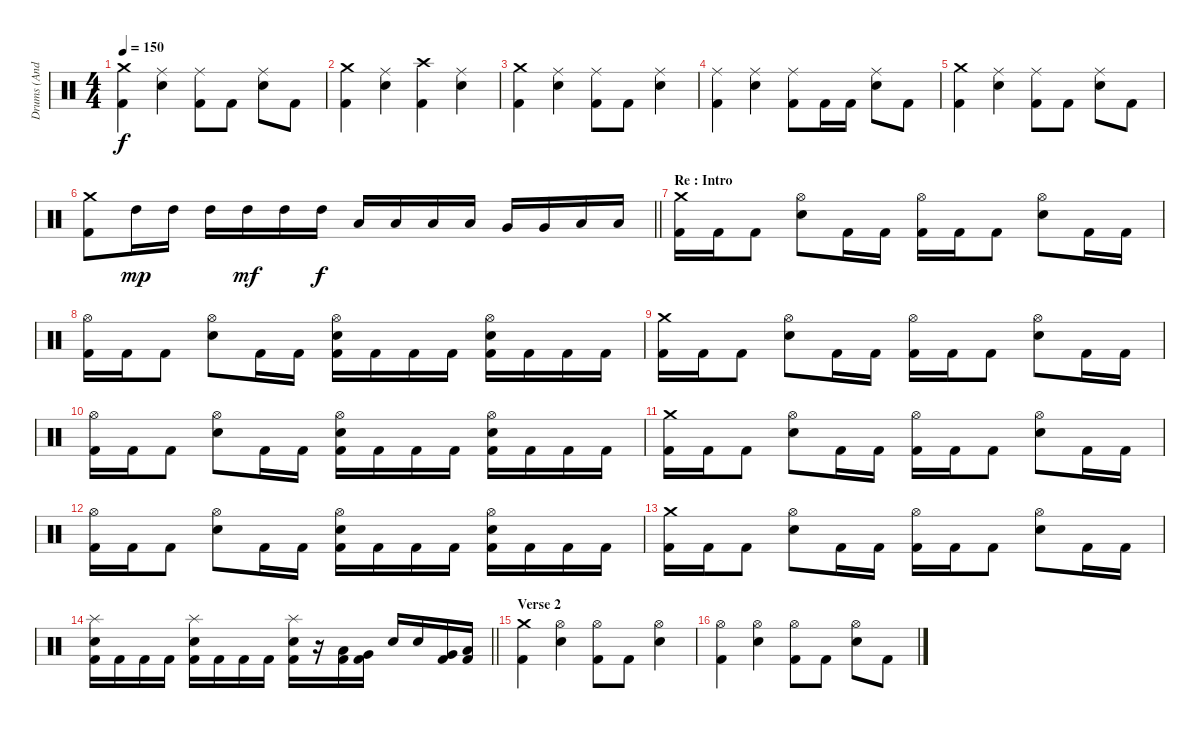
\track ("Drums (Andy C)" "Drums (And") {instrument percussion}
\staff
\articulation defaults
\ts (4 4)
\tempo 150
\clef neutral
\ks c
("Crash medium (hit)" "Kick (hit) 2").4{dy f} ("Ride (middle)" "Electric Snare (hit)").4 ("Ride (middle)" "Kick (hit) 2").8 "Kick (hit) 2".8 ("Ride (middle)" "Electric Snare (hit)").8 "Kick (hit) 2".8 |
("Crash medium (hit)" "Kick (hit) 2").4 ("Ride (middle)" "Electric Snare (hit)").4 ("Crash high (hit)" "Kick (hit) 2").4 ("Ride (middle)" "Electric Snare (hit)").4 |
("Crash medium (hit)" "Kick (hit) 2").4 ("Ride (middle)" "Electric Snare (hit)").4 ("Ride (middle)" "Kick (hit) 2").8 "Kick (hit) 2".8 ("Ride (middle)" "Electric Snare (hit)").4 |
("Ride (middle)" "Kick (hit) 2").4 ("Ride (middle)" "Electric Snare (hit)").4 ("Ride (middle)" "Kick (hit) 2").8 "Kick (hit) 2".16 "Kick (hit) 2".16 ("Ride (middle)" "Electric Snare (hit)").8 "Kick (hit) 2".8 |
("Crash medium (hit)" "Kick (hit) 2").4 ("Ride (middle)" "Electric Snare (hit)").4 ("Ride (middle)" "Kick (hit) 2").8 "Kick (hit) 2".8 ("Ride (middle)" "Electric Snare (hit)").8 "Kick (hit) 2".8 |
\barLineRight lightlight
("Crash medium (hit)" "Kick (hit) 2").8 "High Tom (hit)".16{dy mp} "High Tom (hit)".16 "High Tom (hit)".16 "High Tom (hit)".16{dy mf} "High Tom (hit)".16 "High Tom (hit)".16{dy f} "Low Tom (hit)".16 "Low Tom (hit)".16 "Low Tom (hit)".16 "Low Tom (hit)".16 "Very Low Tom (hit)".16 "Very Low Tom (hit)".16 "Low Floor Tom (hit)".16 "Low Floor Tom (hit)".16 |
\section ("" "Re : Intro")
("Crash medium (hit)" "Kick (hit) 2").16 "Kick (hit) 2".16 "Kick (hit) 2".8 ("Hi-Hat (open)" "Electric Snare (hit)").8 "Kick (hit) 2".16 "Kick (hit) 2".16 ("Hi-Hat (open)" "Kick (hit) 2").16 "Kick (hit) 2".16 "Kick (hit) 2".8 ("Hi-Hat (open)" "Electric Snare (hit)").8 "Kick (hit) 2".16 "Kick (hit) 2".16 |
("Hi-Hat (open)" "Kick (hit) 2").16 "Kick (hit) 2".16 "Kick (hit) 2".8 ("Hi-Hat (open)" "Electric Snare (hit)").8 "Kick (hit) 2".16 "Kick (hit) 2".16 ("Hi-Hat (open)" "Kick (hit) 2" "Electric Snare (hit)").16 "Kick (hit) 2".16 "Kick (hit) 2".16 "Kick (hit) 2".16 ("Hi-Hat (open)" "Kick (hit) 2" "Electric Snare (hit)").16 "Kick (hit) 2".16 "Kick (hit) 2".16 "Kick (hit) 2".16 |
("Crash medium (hit)" "Kick (hit) 2").16 "Kick (hit) 2".16 "Kick (hit) 2".8 ("Hi-Hat (open)" "Electric Snare (hit)").8 "Kick (hit) 2".16 "Kick (hit) 2".16 ("Hi-Hat (open)" "Kick (hit) 2").16 "Kick (hit) 2".16 "Kick (hit) 2".8 ("Hi-Hat (open)" "Electric Snare (hit)").8 "Kick (hit) 2".16 "Kick (hit) 2".16 |
("Hi-Hat (open)" "Kick (hit) 2").16 "Kick (hit) 2".16 "Kick (hit) 2".8 ("Hi-Hat (open)" "Electric Snare (hit)").8 "Kick (hit) 2".16 "Kick (hit) 2".16 ("Hi-Hat (open)" "Kick (hit) 2" "Electric Snare (hit)").16 "Kick (hit) 2".16 "Kick (hit) 2".16 "Kick (hit) 2".16 ("Hi-Hat (open)" "Kick (hit) 2" "Electric Snare (hit)").16 "Kick (hit) 2".16 "Kick (hit) 2".16 "Kick (hit) 2".16 |
("Crash medium (hit)" "Kick (hit) 2").16 "Kick (hit) 2".16 "Kick (hit) 2".8 ("Hi-Hat (open)" "Electric Snare (hit)").8 "Kick (hit) 2".16 "Kick (hit) 2".16 ("Hi-Hat (open)" "Kick (hit) 2").16 "Kick (hit) 2".16 "Kick (hit) 2".8 ("Hi-Hat (open)" "Electric Snare (hit)").8 "Kick (hit) 2".16 "Kick (hit) 2".16 |
("Hi-Hat (open)" "Kick (hit) 2").16 "Kick (hit) 2".16 "Kick (hit) 2".8 ("Hi-Hat (open)" "Electric Snare (hit)").8 "Kick (hit) 2".16 "Kick (hit) 2".16 ("Hi-Hat (open)" "Kick (hit) 2" "Electric Snare (hit)").16 "Kick (hit) 2".16 "Kick (hit) 2".16 "Kick (hit) 2".16 ("Hi-Hat (open)" "Kick (hit) 2" "Electric Snare (hit)").16 "Kick (hit) 2".16 "Kick (hit) 2".16 "Kick (hit) 2".16 |
("Crash medium (hit)" "Kick (hit) 2").16 "Kick (hit) 2".16 "Kick (hit) 2".8 ("Hi-Hat (open)" "Electric Snare (hit)").8 "Kick (hit) 2".16 "Kick (hit) 2".16 ("Hi-Hat (open)" "Kick (hit) 2").16 "Kick (hit) 2".16 "Kick (hit) 2".8 ("Hi-Hat (open)" "Electric Snare (hit)").8 "Kick (hit) 2".16 "Kick (hit) 2".16 |
\barLineRight lightlight
("Splash (hit)" "Kick (hit) 2" "Electric Snare (hit)").16 "Kick (hit) 2".16 "Kick (hit) 2".16 "Kick (hit) 2".16 ("Splash (hit)" "Kick (hit) 2" "Electric Snare (hit)").16 "Kick (hit) 2".16 "Kick (hit) 2".16 "Kick (hit) 2".16 ("Splash (hit)" "Kick (hit) 2" "Electric Snare (hit)").16 r.16 ("Low Tom (hit)" "Kick (hit) 2").16 ("Very Low Tom (hit)" "Kick (hit) 2").16 "Electric Snare (hit)".16 "Electric Snare (hit)".16 ("Very Low Tom (hit)" "Kick (hit) 2").16 ("Low Floor Tom (hit)" "Kick (hit) 2").16 |
\section ("" "Verse 2")
("Crash medium (hit)" "Kick (hit) 2").4 ("Hi-Hat (open)" "Electric Snare (hit)").4 ("Hi-Hat (open)" "Kick (hit) 2").8 "Kick (hit) 2".8 ("Hi-Hat (open)" "Electric Snare (hit)").4 |
("Hi-Hat (open)" "Kick (hit) 2").4 ("Hi-Hat (open)" "Electric Snare (hit)").4 ("Hi-Hat (open)" "Kick (hit) 2").8 "Kick (hit) 2".8 ("Hi-Hat (open)" "Electric Snare (hit)").8 "Kick (hit) 2".8
